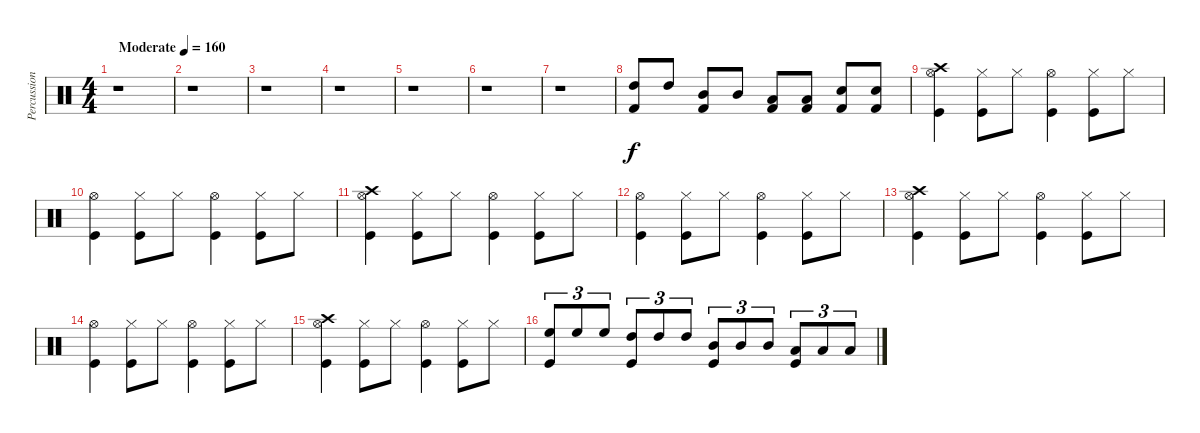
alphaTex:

\track ("Percussion" "Percussion") {instrument percussion}
\staff {score}
\articulation defaults
\ts (4 4)
\tempo (160 "Moderate")
\clef neutral
\ks c
r.1{dy f} |
r.1 |
r.1 |
r.1 |
r.1 |
r.1 |
r.1 |
("High Tom (hit)" "Kick (hit) 2").8 "High Tom (hit)".8 ("Mid Tom (hit)" "Kick (hit) 2").8 "Mid Tom (hit)".8 ("Low Tom (hit)" "Kick (hit) 2").8 ("Low Tom (hit)" "Kick (hit) 2").8 ("Snare (hit) 2" "Kick (hit) 2").8 ("Snare (hit) 2" "Kick (hit) 2").8 |
("Hi-Hat (open)" "Crash high (hit)" "Kick (hit)").4 ("Hi-Hat (closed)" "Kick (hit)").8 "Hi-Hat (closed)".8 ("Hi-Hat (open)" "Kick (hit)").4 ("Hi-Hat (closed)" "Kick (hit)").8 "Hi-Hat (closed)".8 |
("Hi-Hat (open)" "Kick (hit)").4 ("Hi-Hat (closed)" "Kick (hit)").8 "Hi-Hat (closed)".8 ("Hi-Hat (open)" "Kick (hit)").4 ("Hi-Hat (closed)" "Kick (hit)").8 "Hi-Hat (closed)".8 |
("Hi-Hat (open)" "Crash high (hit)" "Kick (hit)").4 ("Hi-Hat (closed)" "Kick (hit)").8 "Hi-Hat (closed)".8 ("Hi-Hat (open)" "Kick (hit)").4 ("Hi-Hat (closed)" "Kick (hit)").8 "Hi-Hat (closed)".8 |
("Hi-Hat (open)" "Kick (hit)").4 ("Hi-Hat (closed)" "Kick (hit)").8 "Hi-Hat (closed)".8 ("Hi-Hat (open)" "Kick (hit)").4 ("Hi-Hat (closed)" "Kick (hit)").8 "Hi-Hat (closed)".8 |
("Hi-Hat (open)" "Crash high (hit)" "Kick (hit)").4 ("Hi-Hat (closed)" "Kick (hit)").8 "Hi-Hat (closed)".8 ("Hi-Hat (open)" "Kick (hit)").4 ("Hi-Hat (closed)" "Kick (hit)").8 "Hi-Hat (closed)".8 |
("Hi-Hat (open)" "Kick (hit)").4 ("Hi-Hat (closed)" "Kick (hit)").8 "Hi-Hat (closed)".8 ("Hi-Hat (open)" "Kick (hit)").4 ("Hi-Hat (closed)" "Kick (hit)").8 "Hi-Hat (closed)".8 |
("Hi-Hat (open)" "Crash high (hit)" "Kick (hit)").4 ("Hi-Hat (closed)" "Kick (hit)").8 "Hi-Hat (closed)".8 ("Hi-Hat (open)" "Kick (hit)").4 ("Hi-Hat (closed)" "Kick (hit)").8 "Hi-Hat (closed)".8 |
("High Floor Tom (hit)" "Kick (hit)").8{tu (3 2)} "High Floor Tom (hit)".8{tu (3 2)} "High Floor Tom (hit)".8{tu (3 2)} ("High Tom (hit)" "Kick (hit)").8{tu (3 2)} "High Tom (hit)".8{tu (3 2)} "High Tom (hit)".8{tu (3 2)} ("Mid Tom (hit)" "Kick (hit)").8{tu (3 2)} "Mid Tom (hit)".8{tu (3 2)} "Mid Tom (hit)".8{tu (3 2)} ("Low Tom (hit)" "Kick (hit)").8{tu (3 2)} "Low Tom (hit)".8{tu (3 2)} "Low Tom (hit)".8{tu (3 2)}
